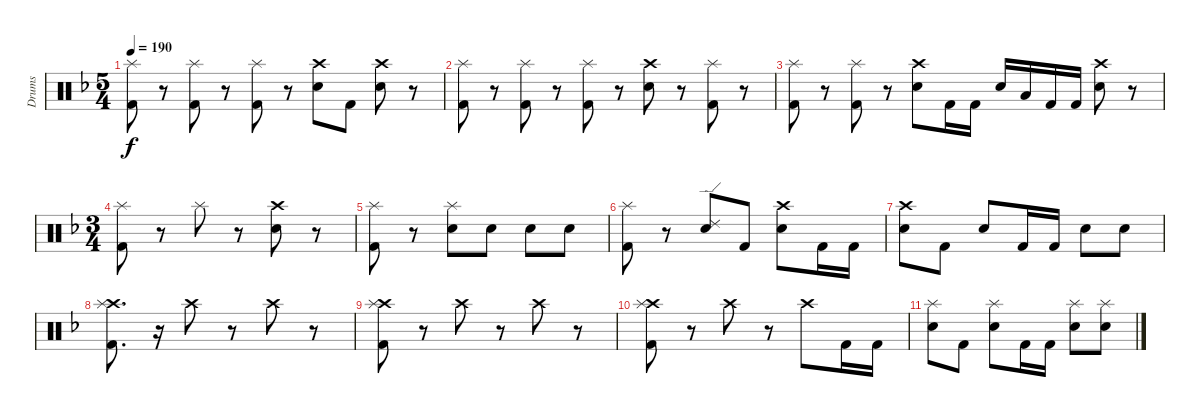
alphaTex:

\track ("Drums" "Drums") {instrument percussion}
\staff {score}
\articulation defaults
\ts (5 4)
\tempo 190
\clef neutral
\ks dminor
("Kick (hit) 2" "Splash (hit)").8{dy f} r.8 ("Kick (hit) 2" "Splash (hit)").8 r.8 ("Kick (hit) 2" "Splash (hit)").8 r.8 ("Electric Snare (hit)" "Crash high (hit)").8 "Kick (hit) 2".8 ("Electric Snare (hit)" "Crash high (hit)").8 r.8 |
("Kick (hit) 2" "Splash (hit)").8 r.8 ("Kick (hit) 2" "Splash (hit)").8 r.8 ("Kick (hit) 2" "Splash (hit)").8 r.8 ("Electric Snare (hit)" "Crash high (hit)").8 r.8 ("Kick (hit) 2" "Splash (hit)").8 r.8 |
("Kick (hit) 2" "Splash (hit)").8 r.8 ("Kick (hit) 2" "Splash (hit)").8 r.8 ("Electric Snare (hit)" "Crash high (hit)").8 "Kick (hit) 2".16 "Kick (hit) 2".16 "Electric Snare (hit)".16 "Low Tom (hit)".16 "Kick (hit) 2".16 "Kick (hit) 2".16 ("Electric Snare (hit)" "Crash high (hit)").8 r.8 |
\ts (3 4)
("Kick (hit) 2" "Splash (hit)").8 r.8 "Splash (hit)".8 r.8 ("Electric Snare (hit)" "Crash high (hit)").8 r.8 |
("Kick (hit) 2" "Splash (hit)").8 r.8 ("Electric Snare (hit)" "Splash (hit)").8 "Electric Snare (hit)".8 "Electric Snare (hit)".8 "Electric Snare (hit)".8 |
("Kick (hit) 2" "Splash (hit)").8 r.8 ("Electric Snare (hit)" "Ride (edge) 2").8 "Kick (hit) 2".8 ("Electric Snare (hit)" "Crash high (hit)").8 "Kick (hit) 2".16 "Kick (hit) 2".16 |
("Electric Snare (hit)" "Crash high (hit)").8 "Kick (hit) 2".8 "Electric Snare (hit)".8 "Kick (hit) 2".16 "Kick (hit) 2".16 "Electric Snare (hit)".8 "Electric Snare (hit)".8 |
("Kick (hit) 2" "Crash high (hit)" "Splash (hit)").8{d} r.16 "Crash high (hit)".8 r.8 "Crash high (hit)".8 r.8 |
("Kick (hit) 2" "Crash high (hit)" "Splash (hit)").8 r.8 "Crash high (hit)".8 r.8 "Crash high (hit)".8 r.8 |
("Kick (hit) 2" "Crash high (hit)" "Splash (hit)").8 r.8 "Crash high (hit)".8 r.8 "Crash high (hit)".8 "Kick (hit) 2".16 "Kick (hit) 2".16 |
("Electric Snare (hit)" "Splash (hit)").8 "Kick (hit) 2".8 ("Electric Snare (hit)" "Splash (hit)").8 "Kick (hit) 2".16 "Kick (hit) 2".16 ("Electric Snare (hit)" "Splash (hit)").8 ("Electric Snare (hit)" "Splash (hit)").8
